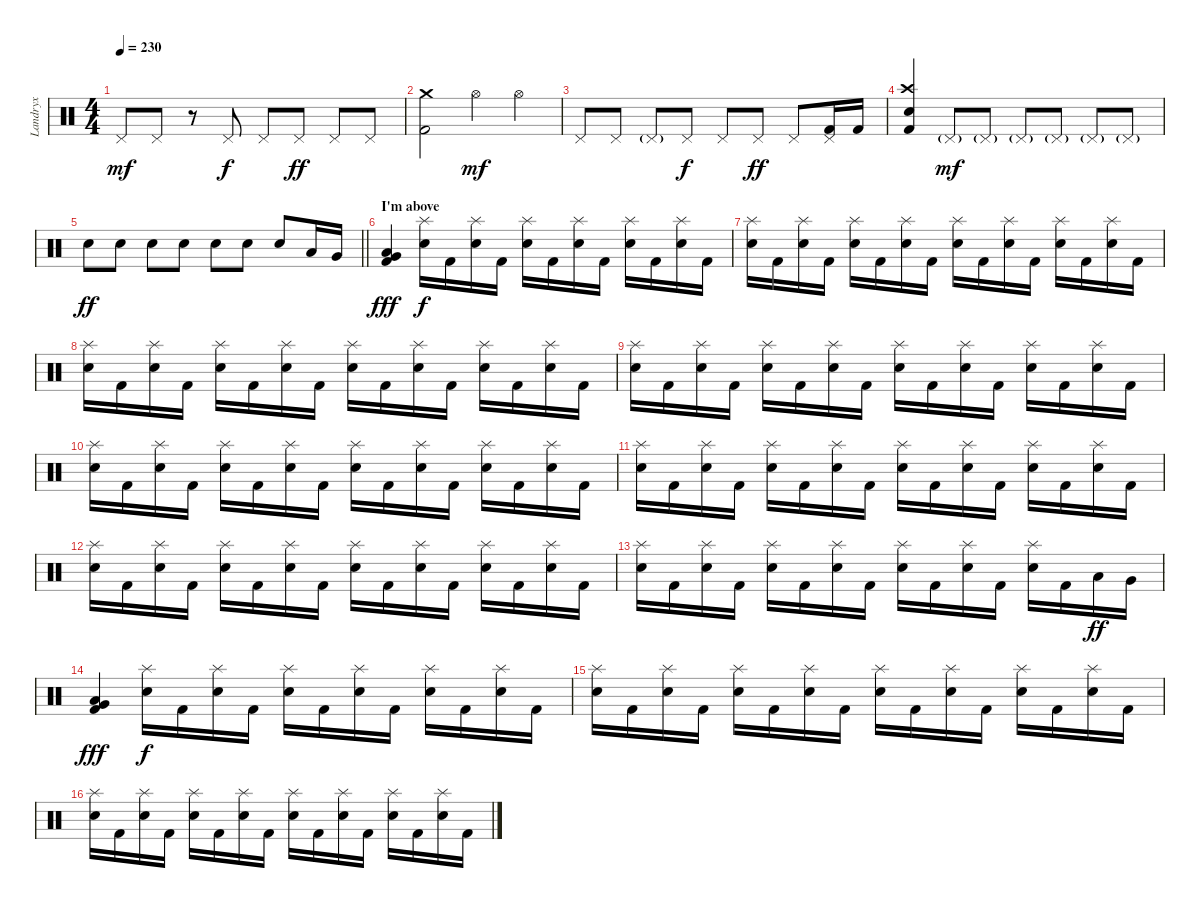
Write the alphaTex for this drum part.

\track ("Landryx" "Landryx") {instrument percussion}
\staff {score}
\articulation defaults
\ts (4 4)
\tempo 230
\clef neutral
\ks c "Pedal Hi-Hat (hit)".8{dy mf} "Pedal Hi-Hat (hit)".8
r.8 "Pedal Hi-Hat (hit)".8{dy f} "Pedal Hi-Hat (hit)".8 "Pedal Hi-Hat (hit)".8{dy ff} "Pedal Hi-Hat (hit)".8 "Pedal Hi-Hat (hit)".8 |
("Crash medium (hit)" "Kick (hit) 2").2 "Hi-Hat (open)".4{dy mf} "Hi-Hat (open)".4 |
"Pedal Hi-Hat (hit)".8 "Pedal Hi-Hat (hit)".8 "Pedal Hi-Hat (hit)"{g}.8 "Pedal Hi-Hat (hit)".8{dy f} "Pedal Hi-Hat (hit)".8 "Pedal Hi-Hat (hit)".8{dy ff} "Pedal Hi-Hat (hit)".8 ("Pedal Hi-Hat (hit)" "Kick (hit) 2").16 "Kick (hit) 2".16 |
("Crash high (hit)" "Electric Snare (hit)" "Kick (hit) 2").4 "Pedal Hi-Hat (hit)"{g}.8{dy mf} "Pedal Hi-Hat (hit)"{g}.8 "Pedal Hi-Hat (hit)"{g}.8 "Pedal Hi-Hat (hit)"{g}.8 "Pedal Hi-Hat (hit)"{g}.8 "Pedal Hi-Hat (hit)"{g}.8 |
\barLineRight lightlight "Electric Snare (hit)".8{dy ff} "Electric Snare (hit)".8 "Electric Snare (hit)".8 "Electric Snare (hit)".8 "Electric Snare (hit)".8 "Electric Snare (hit)".8 "Electric Snare (hit)".8 "Low Tom (hit)".16 "Very Low Tom (hit)".16
|
\section ("" "I'm above")
("Very Low Tom (hit)" "Low Floor Tom (hit)" "Kick (hit) 2").4{dy fff} ("Splash (hit)" "Electric Snare (hit)").16{dy f} "Kick (hit) 2".16 ("Splash (hit)" "Electric Snare (hit)").16 "Kick (hit) 2".16 ("Splash (hit)" "Electric Snare (hit)").16 "Kick (hit) 2".16 ("Splash (hit)" "Electric Snare (hit)").16 "Kick (hit) 2".16 ("Splash (hit)" "Electric Snare (hit)").16 "Kick (hit) 2".16 ("Splash (hit)" "Electric Snare (hit)").16 "Kick (hit) 2".16 |
("Splash (hit)" "Electric Snare (hit)").16 "Kick (hit) 2".16 ("Splash (hit)" "Electric Snare (hit)").16 "Kick (hit) 2".16 ("Splash (hit)" "Electric Snare (hit)").16 "Kick (hit) 2".16 ("Splash (hit)" "Electric Snare (hit)").16 "Kick (hit) 2".16 ("Splash (hit)" "Electric Snare (hit)").16 "Kick (hit) 2".16 ("Splash (hit)" "Electric Snare (hit)").16 "Kick (hit) 2".16 ("Splash (hit)" "Electric Snare (hit)").16 "Kick (hit) 2".16 ("Splash (hit)" "Electric Snare (hit)").16 "Kick (hit) 2".16 |
("Splash (hit)" "Electric Snare (hit)").16 "Kick (hit) 2".16 ("Splash (hit)" "Electric Snare (hit)").16 "Kick (hit) 2".16 ("Splash (hit)" "Electric Snare (hit)").16 "Kick (hit) 2".16 ("Splash (hit)" "Electric Snare (hit)").16 "Kick (hit) 2".16 ("Splash (hit)" "Electric Snare (hit)").16 "Kick (hit) 2".16 ("Splash (hit)" "Electric Snare (hit)").16 "Kick (hit) 2".16 ("Splash (hit)" "Electric Snare (hit)").16 "Kick (hit) 2".16 ("Splash (hit)" "Electric Snare (hit)").16 "Kick (hit) 2".16 |
("Splash (hit)" "Electric Snare (hit)").16 "Kick (hit) 2".16 ("Splash (hit)" "Electric Snare (hit)").16 "Kick (hit) 2".16 ("Splash (hit)" "Electric Snare (hit)").16 "Kick (hit) 2".16 ("Splash (hit)" "Electric Snare (hit)").16 "Kick (hit) 2".16 ("Splash (hit)" "Electric Snare (hit)").16 "Kick (hit) 2".16 ("Splash (hit)" "Electric Snare (hit)").16 "Kick (hit) 2".16 ("Splash (hit)" "Electric Snare (hit)").16 "Kick (hit) 2".16 ("Splash (hit)" "Electric Snare (hit)").16 "Kick (hit) 2".16 |
("Splash (hit)" "Electric Snare (hit)").16 "Kick (hit) 2".16 ("Splash (hit)" "Electric Snare (hit)").16 "Kick (hit) 2".16 ("Splash (hit)" "Electric Snare (hit)").16 "Kick (hit) 2".16 ("Splash (hit)" "Electric Snare (hit)").16 "Kick (hit) 2".16 ("Splash (hit)" "Electric Snare (hit)").16 "Kick (hit) 2".16 ("Splash (hit)" "Electric Snare (hit)").16 "Kick (hit) 2".16 ("Splash (hit)" "Electric Snare (hit)").16 "Kick (hit) 2".16 ("Splash (hit)" "Electric Snare (hit)").16 "Kick (hit) 2".16 |
("Splash (hit)" "Electric Snare (hit)").16 "Kick (hit) 2".16 ("Splash (hit)" "Electric Snare (hit)").16 "Kick (hit) 2".16 ("Splash (hit)" "Electric Snare (hit)").16 "Kick (hit) 2".16 ("Splash (hit)" "Electric Snare (hit)").16 "Kick (hit) 2".16 ("Splash (hit)" "Electric Snare (hit)").16 "Kick (hit) 2".16 ("Splash (hit)" "Electric Snare (hit)").16 "Kick (hit) 2".16 ("Splash (hit)" "Electric Snare (hit)").16 "Kick (hit) 2".16 ("Splash (hit)" "Electric Snare (hit)").16 "Kick (hit) 2".16 |
("Splash (hit)" "Electric Snare (hit)").16 "Kick (hit) 2".16 ("Splash (hit)" "Electric Snare (hit)").16 "Kick (hit) 2".16 ("Splash (hit)" "Electric Snare (hit)").16 "Kick (hit) 2".16 ("Splash (hit)" "Electric Snare (hit)").16 "Kick (hit) 2".16 ("Splash (hit)" "Electric Snare (hit)").16 "Kick (hit) 2".16 ("Splash (hit)" "Electric Snare (hit)").16 "Kick (hit) 2".16 ("Splash (hit)" "Electric Snare (hit)").16 "Kick (hit) 2".16 ("Splash (hit)" "Electric Snare (hit)").16 "Kick (hit) 2".16 |
("Splash (hit)" "Electric Snare (hit)").16 "Kick (hit) 2".16 ("Splash (hit)" "Electric Snare (hit)").16 "Kick (hit) 2".16 ("Splash (hit)" "Electric Snare (hit)").16 "Kick (hit) 2".16 ("Splash (hit)" "Electric Snare (hit)").16 "Kick (hit) 2".16 ("Splash (hit)" "Electric Snare (hit)").16 "Kick (hit) 2".16 ("Splash (hit)" "Electric Snare (hit)").16 "Kick (hit) 2".16 ("Splash (hit)" "Electric Snare (hit)").16 "Kick (hit) 2".16 "Low Tom (hit)".16{dy ff} "Very Low Tom (hit)".16 |
("Very Low Tom (hit)" "Low Floor Tom (hit)" "Kick (hit) 2").4{dy fff} ("Splash (hit)" "Electric Snare (hit)").16{dy f} "Kick (hit) 2".16 ("Splash (hit)" "Electric Snare (hit)").16 "Kick (hit) 2".16 ("Splash (hit)" "Electric Snare (hit)").16 "Kick (hit) 2".16 ("Splash (hit)" "Electric Snare (hit)").16 "Kick (hit) 2".16 ("Splash (hit)" "Electric Snare (hit)").16 "Kick (hit) 2".16 ("Splash (hit)" "Electric Snare (hit)").16 "Kick (hit) 2".16 |
("Splash (hit)" "Electric Snare (hit)").16 "Kick (hit) 2".16 ("Splash (hit)" "Electric Snare (hit)").16 "Kick (hit) 2".16 ("Splash (hit)" "Electric Snare (hit)").16 "Kick (hit) 2".16 ("Splash (hit)" "Electric Snare (hit)").16 "Kick (hit) 2".16 ("Splash (hit)" "Electric Snare (hit)").16 "Kick (hit) 2".16 ("Splash (hit)" "Electric Snare (hit)").16 "Kick (hit) 2".16 ("Splash (hit)" "Electric Snare (hit)").16 "Kick (hit) 2".16 ("Splash (hit)" "Electric Snare (hit)").16 "Kick (hit) 2".16 |
("Splash (hit)" "Electric Snare (hit)").16 "Kick (hit) 2".16 ("Splash (hit)" "Electric Snare (hit)").16 "Kick (hit) 2".16 ("Splash (hit)" "Electric Snare (hit)").16 "Kick (hit) 2".16 ("Splash (hit)" "Electric Snare (hit)").16 "Kick (hit) 2".16 ("Splash (hit)" "Electric Snare (hit)").16 "Kick (hit) 2".16 ("Splash (hit)" "Electric Snare (hit)").16 "Kick (hit) 2".16 ("Splash (hit)" "Electric Snare (hit)").16 "Kick (hit) 2".16 ("Splash (hit)" "Electric Snare (hit)").16 "Kick (hit) 2".16
